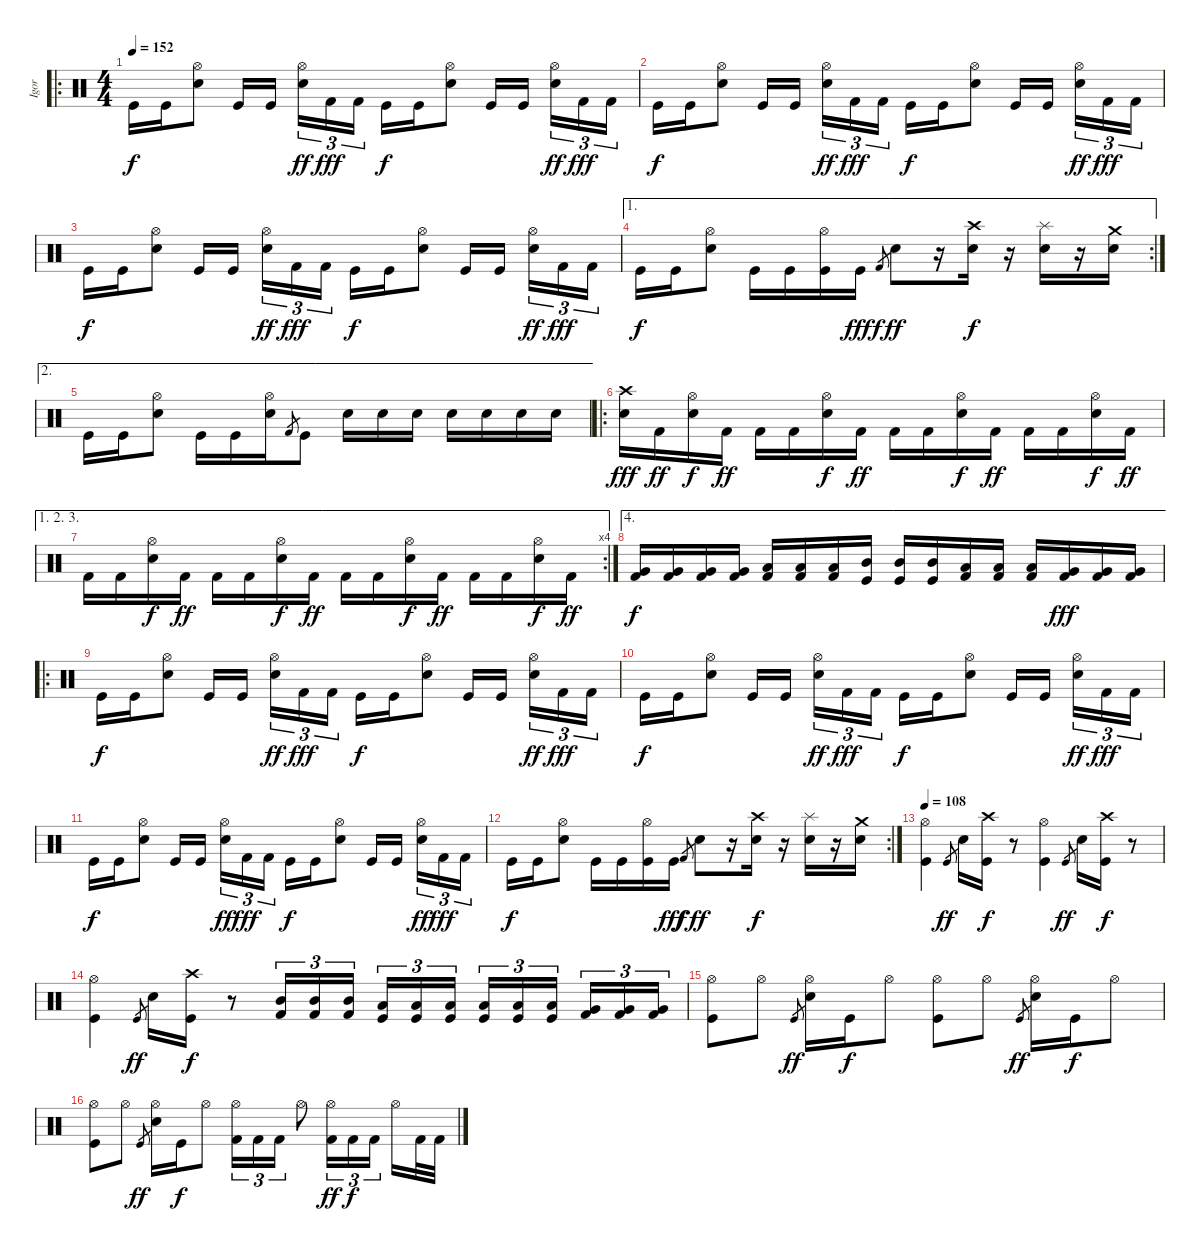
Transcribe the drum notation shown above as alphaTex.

\track ("Igor" "Igor") {instrument percussion}
\staff {score}
\articulation defaults
\ro
\ts (4 4)
\tempo 152
\clef neutral
\ks c "Kick (hit)".16{dy f} "Kick (hit)".16
("Hi-Hat (open)" "Snare (hit) 2").8 "Kick (hit)".16 "Kick (hit)".16 ("Hi-Hat (open)" "Snare (hit) 2").16{tu (3 2) dy ff} "Kick (hit) 2".16{tu (3 2) dy fff} "Kick (hit) 2".16{tu (3 2)} "Kick (hit)".16{dy f} "Kick (hit)".16 ("Hi-Hat (open)" "Snare (hit) 2").8 "Kick (hit)".16 "Kick (hit)".16 ("Hi-Hat (open)" "Snare (hit) 2").16{tu (3 2) dy ff} "Kick (hit) 2".16{tu (3 2) dy fff} "Kick (hit) 2".16{tu (3 2)} |
"Kick (hit)".16{dy f} "Kick (hit)".16 ("Hi-Hat (open)" "Snare (hit) 2").8 "Kick (hit)".16 "Kick (hit)".16 ("Hi-Hat (open)" "Snare (hit) 2").16{tu (3 2) dy ff} "Kick (hit) 2".16{tu (3 2) dy fff} "Kick (hit) 2".16{tu (3 2)} "Kick (hit)".16{dy f} "Kick (hit)".16 ("Hi-Hat (open)" "Snare (hit) 2").8 "Kick (hit)".16 "Kick (hit)".16 ("Hi-Hat (open)" "Snare (hit) 2").16{tu (3 2) dy ff} "Kick (hit) 2".16{tu (3 2) dy fff} "Kick (hit) 2".16{tu (3 2)} |
"Kick (hit)".16{dy f} "Kick (hit)".16 ("Hi-Hat (open)" "Snare (hit) 2").8 "Kick (hit)".16 "Kick (hit)".16 ("Hi-Hat (open)" "Snare (hit) 2").16{tu (3 2) dy ff} "Kick (hit) 2".16{tu (3 2) dy fff} "Kick (hit) 2".16{tu (3 2)} "Kick (hit)".16{dy f} "Kick (hit)".16 ("Hi-Hat (open)" "Snare (hit) 2").8 "Kick (hit)".16 "Kick (hit)".16 ("Hi-Hat (open)" "Snare (hit) 2").16{tu (3 2) dy ff} "Kick (hit) 2".16{tu (3 2) dy fff} "Kick (hit) 2".16{tu (3 2)} |
\ae 1
\rc 2 "Kick (hit)".16{dy f} "Kick (hit)".16
("Hi-Hat (open)" "Snare (hit) 2").8 "Kick (hit)".16 "Kick (hit)".16 ("Hi-Hat (open)" "Kick (hit)").16 "Kick (hit)".16{dy fff} "Kick (hit) 2".8{gr dy f} "Snare (hit) 2".8{dy ff} r.16 ("Crash high (hit)" "Snare (hit) 2").16{dy f} r.16 ("Splash (hit)" "Snare (hit) 2").16 r.16 ("Crash medium (hit)" "Snare (hit) 2").16 |
\ae 2 "Kick (hit)".16 "Kick (hit)".16
("Hi-Hat (open)" "Snare (hit) 2").8 "Kick (hit)".16 "Kick (hit)".16 ("Hi-Hat (open)" "Snare (hit) 2").16 "Kick (hit) 2".8{gr} "Kick (hit)".8 "Snare (hit) 2".16 "Snare (hit) 2".16 "Snare (hit) 2".16 "Snare (hit) 2".16 "Snare (hit) 2".16 "Snare (hit) 2".16 "Snare (hit) 2".16 |
\ro
("Crash high (hit)" "Snare (hit) 2").16{dy fff} "Kick (hit) 2".16{dy ff} ("Hi-Hat (open)" "Snare (hit) 2").16{dy f} "Kick (hit) 2".16{dy ff} "Kick (hit) 2".16 "Kick (hit) 2".16 ("Hi-Hat (open)" "Snare (hit) 2").16{dy f} "Kick (hit) 2".16{dy ff} "Kick (hit) 2".16 "Kick (hit) 2".16 ("Hi-Hat (open)" "Snare (hit) 2").16{dy f} "Kick (hit) 2".16{dy ff} "Kick (hit) 2".16 "Kick (hit) 2".16 ("Hi-Hat (open)" "Snare (hit) 2").16{dy f} "Kick (hit) 2".16{dy ff} |
\ae (1 2 3)
\rc 4 "Kick (hit) 2".16 "Kick (hit) 2".16
("Hi-Hat (open)" "Snare (hit) 2").16{dy f} "Kick (hit) 2".16{dy ff} "Kick (hit) 2".16 "Kick (hit) 2".16 ("Hi-Hat (open)" "Snare (hit) 2").16{dy f} "Kick (hit) 2".16{dy ff} "Kick (hit) 2".16 "Kick (hit) 2".16 ("Hi-Hat (open)" "Snare (hit) 2").16{dy f} "Kick (hit) 2".16{dy ff} "Kick (hit) 2".16 "Kick (hit) 2".16 ("Hi-Hat (open)" "Snare (hit) 2").16{dy f} "Kick (hit) 2".16{dy ff} |
\ae 4
("Very Low Tom (hit)" "Kick (hit) 2").16{dy f} ("Very Low Tom (hit)" "Kick (hit) 2").16 ("Very Low Tom (hit)" "Kick (hit) 2").16 ("Very Low Tom (hit)" "Kick (hit) 2").16 ("Low Tom (hit)" "Kick (hit) 2").16 ("Low Tom (hit)" "Kick (hit) 2").16 ("Low Tom (hit)" "Kick (hit) 2").16 ("Mid Tom (hit)" "Kick (hit)").16 ("Mid Tom (hit)" "Kick (hit)").16 ("Mid Tom (hit)" "Kick (hit)").16 ("Low Tom (hit)" "Kick (hit) 2").16 ("Low Tom (hit)" "Kick (hit) 2").16 ("Low Tom (hit)" "Kick (hit) 2").16 ("Very Low Tom (hit)" "Kick (hit) 2").16{dy fff} ("Very Low Tom (hit)" "Kick (hit) 2").16 ("Very Low Tom (hit)" "Kick (hit) 2").16 |
\ro "Kick (hit)".16{dy f} "Kick (hit)".16
("Hi-Hat (open)" "Snare (hit) 2").8 "Kick (hit)".16 "Kick (hit)".16 ("Hi-Hat (open)" "Snare (hit) 2").16{tu (3 2) dy ff} "Kick (hit) 2".16{tu (3 2) dy fff} "Kick (hit) 2".16{tu (3 2)} "Kick (hit)".16{dy f} "Kick (hit)".16 ("Hi-Hat (open)" "Snare (hit) 2").8 "Kick (hit)".16 "Kick (hit)".16 ("Hi-Hat (open)" "Snare (hit) 2").16{tu (3 2) dy ff} "Kick (hit) 2".16{tu (3 2) dy fff} "Kick (hit) 2".16{tu (3 2)} |
"Kick (hit)".16{dy f} "Kick (hit)".16 ("Hi-Hat (open)" "Snare (hit) 2").8 "Kick (hit)".16 "Kick (hit)".16 ("Hi-Hat (open)" "Snare (hit) 2").16{tu (3 2) dy ff} "Kick (hit) 2".16{tu (3 2) dy fff} "Kick (hit) 2".16{tu (3 2)} "Kick (hit)".16{dy f} "Kick (hit)".16 ("Hi-Hat (open)" "Snare (hit) 2").8 "Kick (hit)".16 "Kick (hit)".16 ("Hi-Hat (open)" "Snare (hit) 2").16{tu (3 2) dy ff} "Kick (hit) 2".16{tu (3 2) dy fff} "Kick (hit) 2".16{tu (3 2)} |
"Kick (hit)".16{dy f} "Kick (hit)".16 ("Hi-Hat (open)" "Snare (hit) 2").8 "Kick (hit)".16 "Kick (hit)".16 ("Hi-Hat (open)" "Snare (hit) 2").16{tu (3 2) dy ff} "Kick (hit) 2".16{tu (3 2) dy fff} "Kick (hit) 2".16{tu (3 2)} "Kick (hit)".16{dy f} "Kick (hit)".16 ("Hi-Hat (open)" "Snare (hit) 2").8 "Kick (hit)".16 "Kick (hit)".16 ("Hi-Hat (open)" "Snare (hit) 2").16{tu (3 2) dy ff} "Kick (hit) 2".16{tu (3 2) dy fff} "Kick (hit) 2".16{tu (3 2)} |
\rc 2 "Kick (hit)".16{dy f} "Kick (hit)".16
("Hi-Hat (open)" "Snare (hit) 2").8 "Kick (hit)".16 "Kick (hit)".16 ("Hi-Hat (open)" "Kick (hit)").16 "Kick (hit)".16{dy fff} "Kick (hit) 2".8{gr dy f} "Snare (hit) 2".8{dy ff} r.16 ("Crash high (hit)" "Snare (hit) 2").16{dy f} r.16 ("Splash (hit)" "Snare (hit) 2").16 r.16 ("Crash medium (hit)" "Snare (hit) 2").16 |
\tempo 108
("Hi-Hat (open)" "Kick (hit)").4 "Kick (hit)".8{gr dy ff} "Snare (hit) 2".16 ("Crash high (hit)" "Kick (hit)").16{dy f} r.8 ("Hi-Hat (open)" "Kick (hit)").4 "Kick (hit)".8{gr dy ff} "Snare (hit) 2".16 ("Crash high (hit)" "Kick (hit)").16{dy f} r.8 |
("Hi-Hat (open)" "Kick (hit)").4 "Kick (hit)".8{gr dy ff} "Snare (hit) 2".16 ("Crash high (hit)" "Kick (hit)").16{dy f} r.8 ("Mid Tom (hit)" "Kick (hit) 2").16{tu (3 2)} ("Mid Tom (hit)" "Kick (hit) 2").16{tu (3 2)} ("Mid Tom (hit)" "Kick (hit) 2").16{tu (3 2)} ("Low Tom (hit)" "Kick (hit)").16{tu (3 2)} ("Low Tom (hit)" "Kick (hit)").16{tu (3 2)} ("Low Tom (hit)" "Kick (hit)").16{tu (3 2)} ("Low Tom (hit)" "Kick (hit)").16{tu (3 2)} ("Low Tom (hit)" "Kick (hit)").16{tu (3 2)} ("Low Tom (hit)" "Kick (hit)").16{tu (3 2)} ("Very Low Tom (hit)" "Kick (hit) 2").16{tu (3 2)} ("Very Low Tom (hit)" "Kick (hit) 2").16{tu (3 2)} ("Very Low Tom (hit)" "Kick (hit) 2").16{tu (3 2)} |
("Hi-Hat (open)" "Kick (hit)").8 "Hi-Hat (open)".8 "Kick (hit)".8{gr dy ff} ("Hi-Hat (open)" "Snare (hit) 2").16 "Kick (hit)".16{dy f} "Hi-Hat (open)".8 ("Hi-Hat (open)" "Kick (hit)").8 "Hi-Hat (open)".8 "Kick (hit)".8{gr dy ff} ("Hi-Hat (open)" "Snare (hit) 2").16 "Kick (hit)".16{dy f} "Hi-Hat (open)".8 |
("Hi-Hat (open)" "Kick (hit)").8 "Hi-Hat (open)".8 "Kick (hit)".8{gr dy ff} ("Hi-Hat (open)" "Snare (hit) 2").16 "Kick (hit)".16{dy f} "Hi-Hat (open)".8 ("Hi-Hat (open)" "Kick (hit) 2").16{tu (3 2)} "Kick (hit) 2".16{tu (3 2)} "Kick (hit) 2".16{tu (3 2)} "Hi-Hat (open)".8 ("Hi-Hat (open)" "Kick (hit) 2").16{tu (3 2) dy ff} "Kick (hit) 2".16{tu (3 2) dy f} "Kick (hit) 2".16{tu (3 2)} "Hi-Hat (open)".16 "Kick (hit) 2".32 "Kick (hit) 2".32
